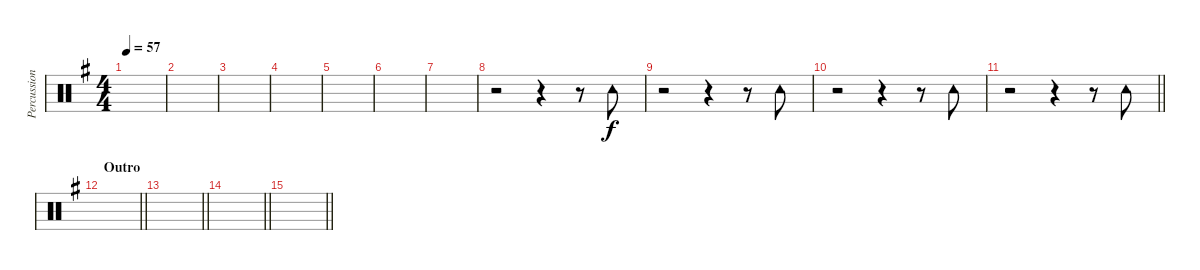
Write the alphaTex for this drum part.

\track ("Percussion 2" "Percussion") {instrument percussion}
\staff {score}
\articulation defaults
\ts (4 4)
\tempo 57
\clef neutral
\ks g
|
|
|
|
|
|
|
r.2 r.4 r.8 "Tambourine (hit)".8 |
r.2 r.4 r.8 "Tambourine (hit)".8 |
r.2 r.4 r.8 "Tambourine (hit)".8 |
\barLineRight lightlight
r.2 r.4 r.8 "Tambourine (hit)".8 |
\section ("" "Outro")
\barLineRight lightlight
|
\barLineRight lightlight
|
\barLineRight lightlight
|
\barLineRight lightlight
